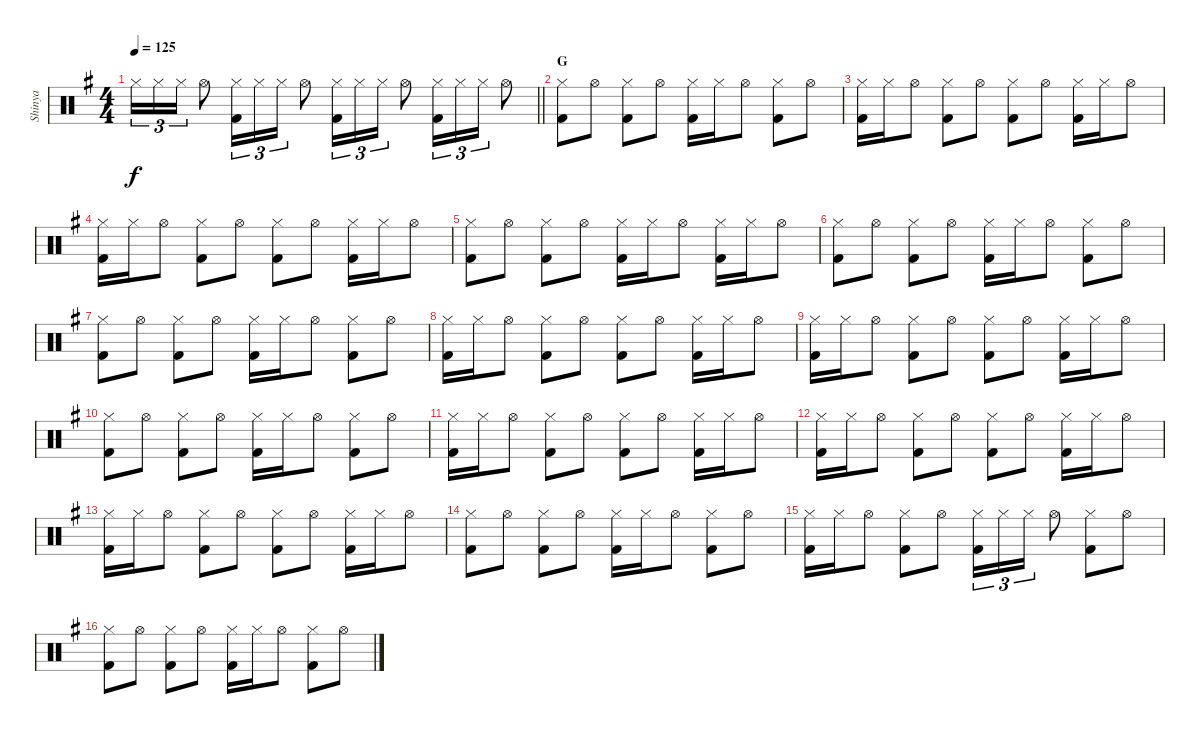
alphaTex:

\track ("Shinya" "Shinya") {instrument percussion}
\staff {score}
\articulation defaults
\ts (4 4)
\tempo 125
\clef neutral
\barLineRight lightlight
\ks g "Hi-Hat (closed)".16{tu (3 2) dy f} "Hi-Hat (closed)".16{tu (3 2)} "Hi-Hat (closed)".16{tu (3 2)} "Hi-Hat (open)".8
("Hi-Hat (closed)" "Kick (hit) 2").16{tu (3 2)} "Hi-Hat (closed)".16{tu (3 2)} "Hi-Hat (closed)".16{tu (3 2)} "Hi-Hat (open)".8 ("Hi-Hat (closed)" "Kick (hit) 2").16{tu (3 2)} "Hi-Hat (closed)".16{tu (3 2)} "Hi-Hat (closed)".16{tu (3 2)} "Hi-Hat (open)".8 ("Hi-Hat (closed)" "Kick (hit) 2").16{tu (3 2)} "Hi-Hat (closed)".16{tu (3 2)} "Hi-Hat (closed)".16{tu (3 2)} "Hi-Hat (open)".8 |
\section ("" "G")
("Hi-Hat (closed)" "Kick (hit) 2").8 "Hi-Hat (open)".8 ("Hi-Hat (closed)" "Kick (hit) 2").8 "Hi-Hat (open)".8 ("Hi-Hat (closed)" "Kick (hit) 2").16 "Hi-Hat (closed)".16 "Hi-Hat (open)".8 ("Hi-Hat (closed)" "Kick (hit) 2").8 "Hi-Hat (open)".8 |
("Hi-Hat (closed)" "Kick (hit) 2").16 "Hi-Hat (closed)".16 "Hi-Hat (open)".8 ("Hi-Hat (closed)" "Kick (hit) 2").8 "Hi-Hat (open)".8 ("Hi-Hat (closed)" "Kick (hit) 2").8 "Hi-Hat (open)".8 ("Hi-Hat (closed)" "Kick (hit) 2").16 "Hi-Hat (closed)".16 "Hi-Hat (open)".8 |
("Hi-Hat (closed)" "Kick (hit) 2").16 "Hi-Hat (closed)".16 "Hi-Hat (open)".8 ("Hi-Hat (closed)" "Kick (hit) 2").8 "Hi-Hat (open)".8 ("Hi-Hat (closed)" "Kick (hit) 2").8 "Hi-Hat (open)".8 ("Hi-Hat (closed)" "Kick (hit) 2").16 "Hi-Hat (closed)".16 "Hi-Hat (open)".8 |
("Hi-Hat (closed)" "Kick (hit) 2").8 "Hi-Hat (open)".8 ("Hi-Hat (closed)" "Kick (hit) 2").8 "Hi-Hat (open)".8 ("Hi-Hat (closed)" "Kick (hit) 2").16 "Hi-Hat (closed)".16 "Hi-Hat (open)".8 ("Hi-Hat (closed)" "Kick (hit) 2").16 "Hi-Hat (closed)".16 "Hi-Hat (open)".8 |
("Hi-Hat (closed)" "Kick (hit) 2").8 "Hi-Hat (open)".8 ("Hi-Hat (closed)" "Kick (hit) 2").8 "Hi-Hat (open)".8 ("Hi-Hat (closed)" "Kick (hit) 2").16 "Hi-Hat (closed)".16 "Hi-Hat (open)".8 ("Hi-Hat (closed)" "Kick (hit) 2").8 "Hi-Hat (open)".8 |
("Hi-Hat (closed)" "Kick (hit) 2").8 "Hi-Hat (open)".8 ("Hi-Hat (closed)" "Kick (hit) 2").8 "Hi-Hat (open)".8 ("Hi-Hat (closed)" "Kick (hit) 2").16 "Hi-Hat (closed)".16 "Hi-Hat (open)".8 ("Hi-Hat (closed)" "Kick (hit) 2").8 "Hi-Hat (open)".8 |
("Hi-Hat (closed)" "Kick (hit) 2").16 "Hi-Hat (closed)".16 "Hi-Hat (open)".8 ("Hi-Hat (closed)" "Kick (hit) 2").8 "Hi-Hat (open)".8 ("Hi-Hat (closed)" "Kick (hit) 2").8 "Hi-Hat (open)".8 ("Hi-Hat (closed)" "Kick (hit) 2").16 "Hi-Hat (closed)".16 "Hi-Hat (open)".8 |
("Hi-Hat (closed)" "Kick (hit) 2").16 "Hi-Hat (closed)".16 "Hi-Hat (open)".8 ("Hi-Hat (closed)" "Kick (hit) 2").8 "Hi-Hat (open)".8 ("Hi-Hat (closed)" "Kick (hit) 2").8 "Hi-Hat (open)".8 ("Hi-Hat (closed)" "Kick (hit) 2").16 "Hi-Hat (closed)".16 "Hi-Hat (open)".8 |
("Hi-Hat (closed)" "Kick (hit) 2").8 "Hi-Hat (open)".8 ("Hi-Hat (closed)" "Kick (hit) 2").8 "Hi-Hat (open)".8 ("Hi-Hat (closed)" "Kick (hit) 2").16 "Hi-Hat (closed)".16 "Hi-Hat (open)".8 ("Hi-Hat (closed)" "Kick (hit) 2").8 "Hi-Hat (open)".8 |
("Hi-Hat (closed)" "Kick (hit) 2").16 "Hi-Hat (closed)".16 "Hi-Hat (open)".8 ("Hi-Hat (closed)" "Kick (hit) 2").8 "Hi-Hat (open)".8 ("Hi-Hat (closed)" "Kick (hit) 2").8 "Hi-Hat (open)".8 ("Hi-Hat (closed)" "Kick (hit) 2").16 "Hi-Hat (closed)".16 "Hi-Hat (open)".8 |
("Hi-Hat (closed)" "Kick (hit) 2").16 "Hi-Hat (closed)".16 "Hi-Hat (open)".8 ("Hi-Hat (closed)" "Kick (hit) 2").8 "Hi-Hat (open)".8 ("Hi-Hat (closed)" "Kick (hit) 2").8 "Hi-Hat (open)".8 ("Hi-Hat (closed)" "Kick (hit) 2").16 "Hi-Hat (closed)".16 "Hi-Hat (open)".8 |
("Hi-Hat (closed)" "Kick (hit) 2").16 "Hi-Hat (closed)".16 "Hi-Hat (open)".8 ("Hi-Hat (closed)" "Kick (hit) 2").8 "Hi-Hat (open)".8 ("Hi-Hat (closed)" "Kick (hit) 2").8 "Hi-Hat (open)".8 ("Hi-Hat (closed)" "Kick (hit) 2").16 "Hi-Hat (closed)".16 "Hi-Hat (open)".8 |
("Hi-Hat (closed)" "Kick (hit) 2").8 "Hi-Hat (open)".8 ("Hi-Hat (closed)" "Kick (hit) 2").8 "Hi-Hat (open)".8 ("Hi-Hat (closed)" "Kick (hit) 2").16 "Hi-Hat (closed)".16 "Hi-Hat (open)".8 ("Hi-Hat (closed)" "Kick (hit) 2").8 "Hi-Hat (open)".8 |
("Hi-Hat (closed)" "Kick (hit) 2").16 "Hi-Hat (closed)".16 "Hi-Hat (open)".8 ("Hi-Hat (closed)" "Kick (hit) 2").8 "Hi-Hat (open)".8 ("Hi-Hat (closed)" "Kick (hit) 2").16{tu (3 2)} "Hi-Hat (closed)".16{tu (3 2)} "Hi-Hat (closed)".16{tu (3 2)} "Hi-Hat (open)".8 ("Hi-Hat (closed)" "Kick (hit) 2").8 "Hi-Hat (open)".8 |
("Hi-Hat (closed)" "Kick (hit) 2").8 "Hi-Hat (open)".8 ("Hi-Hat (closed)" "Kick (hit) 2").8 "Hi-Hat (open)".8 ("Hi-Hat (closed)" "Kick (hit) 2").16 "Hi-Hat (closed)".16 "Hi-Hat (open)".8 ("Hi-Hat (closed)" "Kick (hit) 2").8 "Hi-Hat (open)".8
